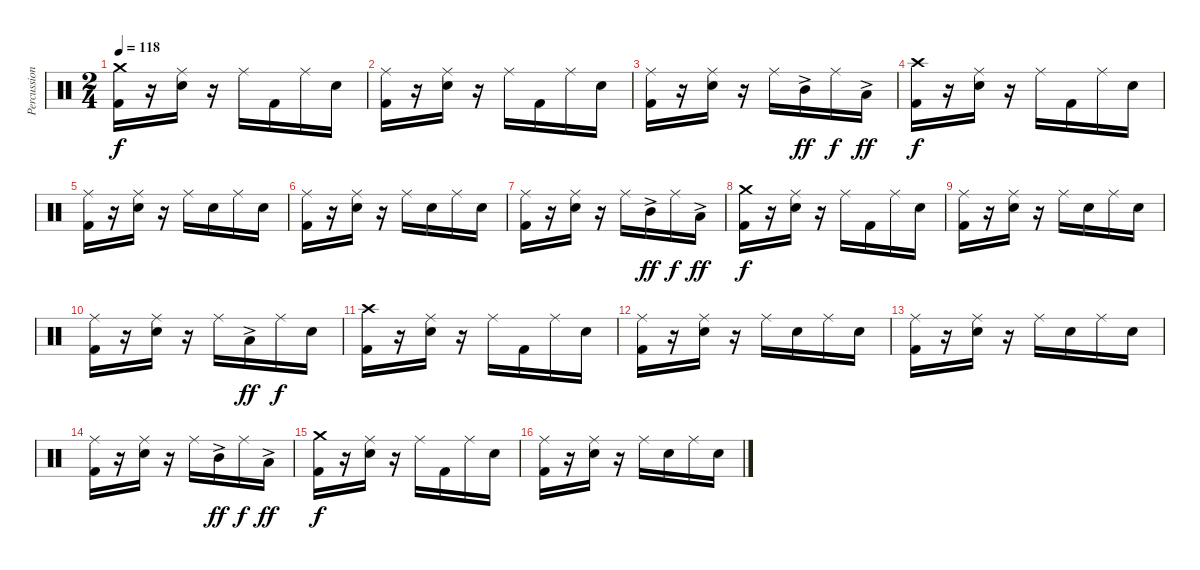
\track ("Percussion" "Percussion") {instrument percussion}
\staff {score}
\articulation defaults
\ts (2 4)
\tempo 118
\clef neutral
\ks c
("Crash medium (hit)" "Kick (hit) 2").16{dy f} r.16 ("Ride (middle)" "Electric Snare (hit)").16 r.16 "Ride (middle)".16 "Kick (hit) 2".16 "Ride (middle)".16 "Electric Snare (hit)".16 |
("Ride (middle)" "Kick (hit) 2").16 r.16 ("Ride (middle)" "Electric Snare (hit)").16 r.16 "Ride (middle)".16 "Kick (hit) 2".16 "Ride (middle)".16 "Electric Snare (hit)".16 |
("Ride (middle)" "Kick (hit) 2").16 r.16 ("Ride (middle)" "Electric Snare (hit)").16 r.16 "Ride (middle)".16 "Mid Tom (hit)"{ac}.16{dy ff} "Ride (middle)".16{dy f} "Low Tom (hit)"{ac}.16{dy ff} |
("Crash high (hit)" "Kick (hit) 2").16{dy f} r.16 ("Ride (middle)" "Electric Snare (hit)").16 r.16 "Ride (middle)".16 "Kick (hit) 2".16 "Ride (middle)".16 "Electric Snare (hit)".16 |
("Ride (middle)" "Kick (hit) 2").16 r.16 ("Ride (middle)" "Electric Snare (hit)").16 r.16 "Ride (middle)".16 "Electric Snare (hit)".16 "Ride (middle)".16 "Electric Snare (hit)".16 |
("Ride (middle)" "Kick (hit) 2").16 r.16 ("Ride (middle)" "Electric Snare (hit)").16 r.16 "Ride (middle)".16 "Electric Snare (hit)".16 "Ride (middle)".16 "Electric Snare (hit)".16 |
("Ride (middle)" "Kick (hit) 2").16 r.16 ("Ride (middle)" "Electric Snare (hit)").16 r.16 "Ride (middle)".16 "Mid Tom (hit)"{ac}.16{dy ff} "Ride (middle)".16{dy f} "Low Tom (hit)"{ac}.16{dy ff} |
("Crash medium (hit)" "Kick (hit) 2").16{dy f} r.16 ("Ride (middle)" "Electric Snare (hit)").16 r.16 "Ride (middle)".16 "Kick (hit) 2".16 "Ride (middle)".16 "Electric Snare (hit)".16 |
("Ride (middle)" "Kick (hit) 2").16 r.16 ("Ride (middle)" "Electric Snare (hit)").16 r.16 "Ride (middle)".16 "Electric Snare (hit)".16 "Ride (middle)".16 "Electric Snare (hit)".16 |
("Ride (middle)" "Kick (hit) 2").16 r.16 ("Ride (middle)" "Electric Snare (hit)").16 r.16 "Ride (middle)".16 "Low Tom (hit)"{ac}.16{dy ff} "Ride (middle)".16{dy f} "Electric Snare (hit)".16 |
("Crash high (hit)" "Kick (hit) 2").16 r.16 ("Ride (middle)" "Electric Snare (hit)").16 r.16 "Ride (middle)".16 "Kick (hit) 2".16 "Ride (middle)".16 "Electric Snare (hit)".16 |
("Ride (middle)" "Kick (hit) 2").16 r.16 ("Ride (middle)" "Electric Snare (hit)").16 r.16 "Ride (middle)".16 "Electric Snare (hit)".16 "Ride (middle)".16 "Electric Snare (hit)".16 |
("Ride (middle)" "Kick (hit) 2").16 r.16 ("Ride (middle)" "Electric Snare (hit)").16 r.16 "Ride (middle)".16 "Electric Snare (hit)".16 "Ride (middle)".16 "Electric Snare (hit)".16 |
("Ride (middle)" "Kick (hit) 2").16 r.16 ("Ride (middle)" "Electric Snare (hit)").16 r.16 "Ride (middle)".16 "Mid Tom (hit)"{ac}.16{dy ff} "Ride (middle)".16{dy f} "Low Tom (hit)"{ac}.16{dy ff} |
("Crash medium (hit)" "Kick (hit) 2").16{dy f} r.16 ("Ride (middle)" "Electric Snare (hit)").16 r.16 "Ride (middle)".16 "Kick (hit) 2".16 "Ride (middle)".16 "Electric Snare (hit)".16 |
("Ride (middle)" "Kick (hit) 2").16 r.16 ("Ride (middle)" "Electric Snare (hit)").16 r.16 "Ride (middle)".16 "Electric Snare (hit)".16 "Ride (middle)".16 "Electric Snare (hit)".16
